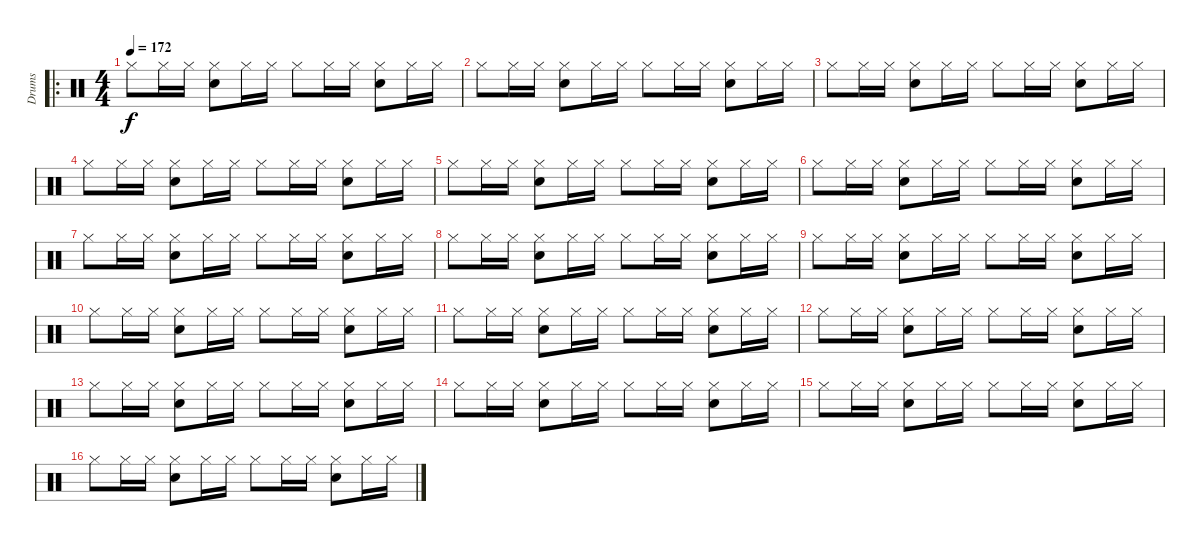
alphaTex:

\track ("Drums" "Drums") {instrument percussion}
\staff {score}
\articulation defaults
\ro
\ts (4 4)
\tempo 172
\clef neutral
\ks c "Hi-Hat (closed)".8{dy f} "Hi-Hat (closed)".16 "Hi-Hat (closed)".16
("Hi-Hat (closed)" "Snare (hit) 2").8 "Hi-Hat (closed)".16 "Hi-Hat (closed)".16 "Hi-Hat (closed)".8 "Hi-Hat (closed)".16 "Hi-Hat (closed)".16 ("Hi-Hat (closed)" "Snare (hit) 2").8 "Hi-Hat (closed)".16 "Hi-Hat (closed)".16 |
"Hi-Hat (closed)".8 "Hi-Hat (closed)".16 "Hi-Hat (closed)".16 ("Hi-Hat (closed)" "Snare (hit) 2").8 "Hi-Hat (closed)".16 "Hi-Hat (closed)".16 "Hi-Hat (closed)".8 "Hi-Hat (closed)".16 "Hi-Hat (closed)".16 ("Hi-Hat (closed)" "Snare (hit) 2").8 "Hi-Hat (closed)".16 "Hi-Hat (closed)".16 |
"Hi-Hat (closed)".8 "Hi-Hat (closed)".16 "Hi-Hat (closed)".16 ("Hi-Hat (closed)" "Snare (hit) 2").8 "Hi-Hat (closed)".16 "Hi-Hat (closed)".16 "Hi-Hat (closed)".8 "Hi-Hat (closed)".16 "Hi-Hat (closed)".16 ("Hi-Hat (closed)" "Snare (hit) 2").8 "Hi-Hat (closed)".16 "Hi-Hat (closed)".16 |
"Hi-Hat (closed)".8 "Hi-Hat (closed)".16 "Hi-Hat (closed)".16 ("Hi-Hat (closed)" "Snare (hit) 2").8 "Hi-Hat (closed)".16 "Hi-Hat (closed)".16 "Hi-Hat (closed)".8 "Hi-Hat (closed)".16 "Hi-Hat (closed)".16 ("Hi-Hat (closed)" "Snare (hit) 2").8 "Hi-Hat (closed)".16 "Hi-Hat (closed)".16 |
"Hi-Hat (closed)".8 "Hi-Hat (closed)".16 "Hi-Hat (closed)".16 ("Hi-Hat (closed)" "Snare (hit) 2").8 "Hi-Hat (closed)".16 "Hi-Hat (closed)".16 "Hi-Hat (closed)".8 "Hi-Hat (closed)".16 "Hi-Hat (closed)".16 ("Hi-Hat (closed)" "Snare (hit) 2").8 "Hi-Hat (closed)".16 "Hi-Hat (closed)".16 |
"Hi-Hat (closed)".8 "Hi-Hat (closed)".16 "Hi-Hat (closed)".16 ("Hi-Hat (closed)" "Snare (hit) 2").8 "Hi-Hat (closed)".16 "Hi-Hat (closed)".16 "Hi-Hat (closed)".8 "Hi-Hat (closed)".16 "Hi-Hat (closed)".16 ("Hi-Hat (closed)" "Snare (hit) 2").8 "Hi-Hat (closed)".16 "Hi-Hat (closed)".16 |
"Hi-Hat (closed)".8 "Hi-Hat (closed)".16 "Hi-Hat (closed)".16 ("Hi-Hat (closed)" "Snare (hit) 2").8 "Hi-Hat (closed)".16 "Hi-Hat (closed)".16 "Hi-Hat (closed)".8 "Hi-Hat (closed)".16 "Hi-Hat (closed)".16 ("Hi-Hat (closed)" "Snare (hit) 2").8 "Hi-Hat (closed)".16 "Hi-Hat (closed)".16 |
"Hi-Hat (closed)".8 "Hi-Hat (closed)".16 "Hi-Hat (closed)".16 ("Hi-Hat (closed)" "Snare (hit) 2").8 "Hi-Hat (closed)".16 "Hi-Hat (closed)".16 "Hi-Hat (closed)".8 "Hi-Hat (closed)".16 "Hi-Hat (closed)".16 ("Hi-Hat (closed)" "Snare (hit) 2").8 "Hi-Hat (closed)".16 "Hi-Hat (closed)".16 |
"Hi-Hat (closed)".8 "Hi-Hat (closed)".16 "Hi-Hat (closed)".16 ("Hi-Hat (closed)" "Snare (hit) 2").8 "Hi-Hat (closed)".16 "Hi-Hat (closed)".16 "Hi-Hat (closed)".8 "Hi-Hat (closed)".16 "Hi-Hat (closed)".16 ("Hi-Hat (closed)" "Snare (hit) 2").8 "Hi-Hat (closed)".16 "Hi-Hat (closed)".16 |
"Hi-Hat (closed)".8 "Hi-Hat (closed)".16 "Hi-Hat (closed)".16 ("Hi-Hat (closed)" "Snare (hit) 2").8 "Hi-Hat (closed)".16 "Hi-Hat (closed)".16 "Hi-Hat (closed)".8 "Hi-Hat (closed)".16 "Hi-Hat (closed)".16 ("Hi-Hat (closed)" "Snare (hit) 2").8 "Hi-Hat (closed)".16 "Hi-Hat (closed)".16 |
"Hi-Hat (closed)".8 "Hi-Hat (closed)".16 "Hi-Hat (closed)".16 ("Hi-Hat (closed)" "Snare (hit) 2").8 "Hi-Hat (closed)".16 "Hi-Hat (closed)".16 "Hi-Hat (closed)".8 "Hi-Hat (closed)".16 "Hi-Hat (closed)".16 ("Hi-Hat (closed)" "Snare (hit) 2").8 "Hi-Hat (closed)".16 "Hi-Hat (closed)".16 |
"Hi-Hat (closed)".8 "Hi-Hat (closed)".16 "Hi-Hat (closed)".16 ("Hi-Hat (closed)" "Snare (hit) 2").8 "Hi-Hat (closed)".16 "Hi-Hat (closed)".16 "Hi-Hat (closed)".8 "Hi-Hat (closed)".16 "Hi-Hat (closed)".16 ("Hi-Hat (closed)" "Snare (hit) 2").8 "Hi-Hat (closed)".16 "Hi-Hat (closed)".16 |
"Hi-Hat (closed)".8 "Hi-Hat (closed)".16 "Hi-Hat (closed)".16 ("Hi-Hat (closed)" "Snare (hit) 2").8 "Hi-Hat (closed)".16 "Hi-Hat (closed)".16 "Hi-Hat (closed)".8 "Hi-Hat (closed)".16 "Hi-Hat (closed)".16 ("Hi-Hat (closed)" "Snare (hit) 2").8 "Hi-Hat (closed)".16 "Hi-Hat (closed)".16 |
"Hi-Hat (closed)".8 "Hi-Hat (closed)".16 "Hi-Hat (closed)".16 ("Hi-Hat (closed)" "Snare (hit) 2").8 "Hi-Hat (closed)".16 "Hi-Hat (closed)".16 "Hi-Hat (closed)".8 "Hi-Hat (closed)".16 "Hi-Hat (closed)".16 ("Hi-Hat (closed)" "Snare (hit) 2").8 "Hi-Hat (closed)".16 "Hi-Hat (closed)".16 |
"Hi-Hat (closed)".8 "Hi-Hat (closed)".16 "Hi-Hat (closed)".16 ("Hi-Hat (closed)" "Snare (hit) 2").8 "Hi-Hat (closed)".16 "Hi-Hat (closed)".16 "Hi-Hat (closed)".8 "Hi-Hat (closed)".16 "Hi-Hat (closed)".16 ("Hi-Hat (closed)" "Snare (hit) 2").8 "Hi-Hat (closed)".16 "Hi-Hat (closed)".16 |
"Hi-Hat (closed)".8 "Hi-Hat (closed)".16 "Hi-Hat (closed)".16 ("Hi-Hat (closed)" "Snare (hit) 2").8 "Hi-Hat (closed)".16 "Hi-Hat (closed)".16 "Hi-Hat (closed)".8 "Hi-Hat (closed)".16 "Hi-Hat (closed)".16 ("Hi-Hat (closed)" "Snare (hit) 2").8 "Hi-Hat (closed)".16 "Hi-Hat (closed)".16
